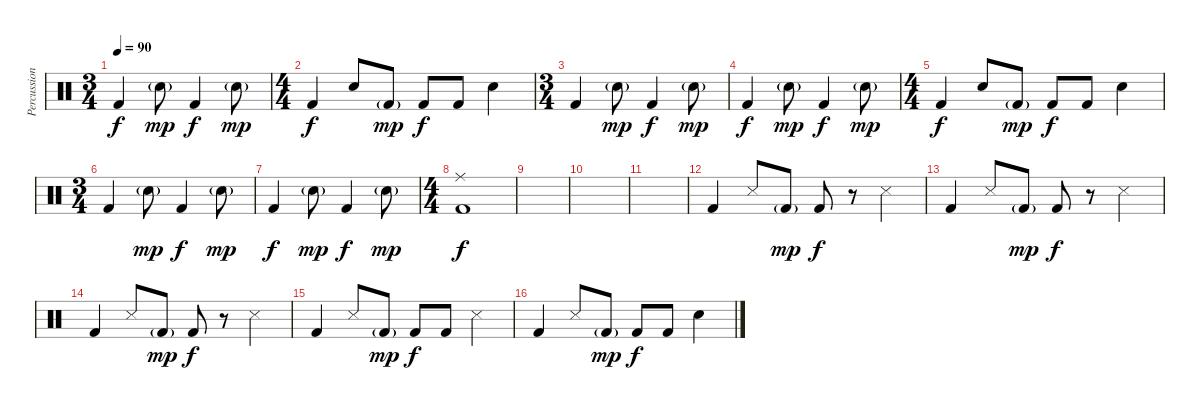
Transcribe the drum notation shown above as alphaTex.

\track ("Percussion" "Percussion") {instrument percussion}
\staff {score}
\articulation defaults
\ts (3 4)
\tempo 90
\clef neutral
\ks c "Kick (hit) 2".4{dy f} "Snare (hit) 2"{g}.8{dy mp} "Kick (hit) 2".4{dy f} "Snare (hit) 2"{g}.8{dy mp}
|
\ts (4 4)
"Kick (hit) 2".4{dy f} "Snare (hit) 2".8 "Kick (hit) 2"{g}.8{dy mp} "Kick (hit) 2".8{dy f} "Kick (hit) 2".8 "Snare (hit) 2".4 |
\ts (3 4)
"Kick (hit) 2".4 "Snare (hit) 2"{g}.8{dy mp} "Kick (hit) 2".4{dy f} "Snare (hit) 2"{g}.8{dy mp} |
"Kick (hit) 2".4{dy f} "Snare (hit) 2"{g}.8{dy mp} "Kick (hit) 2".4{dy f} "Snare (hit) 2"{g}.8{dy mp} |
\ts (4 4)
"Kick (hit) 2".4{dy f} "Snare (hit) 2".8 "Kick (hit) 2"{g}.8{dy mp} "Kick (hit) 2".8{dy f} "Kick (hit) 2".8 "Snare (hit) 2".4 |
\ts (3 4)
"Kick (hit) 2".4 "Snare (hit) 2"{g}.8{dy mp} "Kick (hit) 2".4{dy f} "Snare (hit) 2"{g}.8{dy mp} |
"Kick (hit) 2".4{dy f} "Snare (hit) 2"{g}.8{dy mp} "Kick (hit) 2".4{dy f} "Snare (hit) 2"{g}.8{dy mp} |
\ts (4 4)
("Ride (middle)" "Kick (hit) 2").1{dy f} |
|
|
|
"Kick (hit) 2".4 "Snare (side stick) 3".8 "Kick (hit) 2"{g}.8{dy mp} "Kick (hit) 2".8{dy f} r.8 "Snare (side stick) 3".4 |
"Kick (hit) 2".4 "Snare (side stick) 3".8 "Kick (hit) 2"{g}.8{dy mp} "Kick (hit) 2".8{dy f} r.8 "Snare (side stick) 3".4 |
"Kick (hit) 2".4 "Snare (side stick) 3".8 "Kick (hit) 2"{g}.8{dy mp} "Kick (hit) 2".8{dy f} r.8 "Snare (side stick) 3".4 |
"Kick (hit) 2".4 "Snare (side stick) 3".8 "Kick (hit) 2"{g}.8{dy mp} "Kick (hit) 2".8{dy f} "Kick (hit) 2".8 "Snare (side stick) 3".4 |
"Kick (hit) 2".4 "Snare (side stick) 3".8 "Kick (hit) 2"{g}.8{dy mp} "Kick (hit) 2".8{dy f} "Kick (hit) 2".8 "Snare (hit) 2".4
